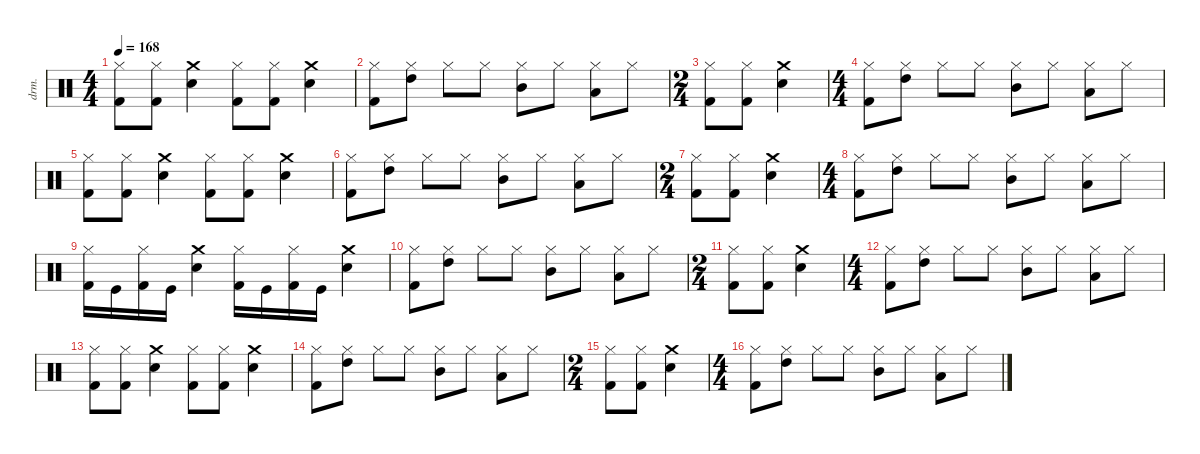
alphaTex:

\defaultSystemsLayout 4
\hideDynamics
\bracketExtendMode nobrackets
\otherSystemsTrackNameOrientation horizontal
\track ("Drums" "drm.") {instrument percussion}
\staff {score}
\articulation defaults
\ts (4 4)
\tempo 168
\clef neutral
\ks c
("Hi-Hat (closed)" "Kick (hit) 2").8{dy fff} ("Hi-Hat (closed)" "Kick (hit) 2").8 ("Snare (hit) 2" "Crash medium (hit)").4 ("Kick (hit) 2" "Hi-Hat (closed)").8 ("Kick (hit) 2" "Hi-Hat (closed)").8 ("Crash medium (hit)" "Snare (hit) 2").4 |
("Hi-Hat (closed)" "Kick (hit) 2").8 ("High Tom (hit)" "Hi-Hat (closed)").8 "Hi-Hat (closed)".8 "Hi-Hat (closed)".8 ("Mid Tom (hit)" "Hi-Hat (closed)").8 "Hi-Hat (closed)".8 ("Low Tom (hit)" "Hi-Hat (closed)").8 "Hi-Hat (closed)".8 |
\ts (2 4)
\beaming (8 2 2)
("Kick (hit) 2" "Hi-Hat (closed)").8 ("Kick (hit) 2" "Hi-Hat (closed)").8 ("Snare (hit) 2" "Crash medium (hit)").4 |
\ts (4 4)
\beaming (8 2 2 2 2)
("Hi-Hat (closed)" "Kick (hit) 2").8 ("High Tom (hit)" "Hi-Hat (closed)").8 "Hi-Hat (closed)".8 "Hi-Hat (closed)".8 ("Mid Tom (hit)" "Hi-Hat (closed)").8 "Hi-Hat (closed)".8 ("Hi-Hat (closed)" "Low Tom (hit)").8 "Hi-Hat (closed)".8 |
("Hi-Hat (closed)" "Kick (hit) 2").8 ("Hi-Hat (closed)" "Kick (hit) 2").8 ("Snare (hit) 2" "Crash medium (hit)").4 ("Kick (hit) 2" "Hi-Hat (closed)").8 ("Kick (hit) 2" "Hi-Hat (closed)").8 ("Crash medium (hit)" "Snare (hit) 2").4 |
("Hi-Hat (closed)" "Kick (hit) 2").8 ("High Tom (hit)" "Hi-Hat (closed)").8 "Hi-Hat (closed)".8 "Hi-Hat (closed)".8 ("Mid Tom (hit)" "Hi-Hat (closed)").8 "Hi-Hat (closed)".8 ("Hi-Hat (closed)" "Low Tom (hit)").8 "Hi-Hat (closed)".8 |
\ts (2 4)
\beaming (8 2 2)
("Kick (hit) 2" "Hi-Hat (closed)").8 ("Kick (hit) 2" "Hi-Hat (closed)").8 ("Snare (hit) 2" "Crash medium (hit)").4 |
\ts (4 4)
\beaming (8 2 2 2 2)
("Hi-Hat (closed)" "Kick (hit) 2").8 ("High Tom (hit)" "Hi-Hat (closed)").8 "Hi-Hat (closed)".8 "Hi-Hat (closed)".8 ("Mid Tom (hit)" "Hi-Hat (closed)").8 "Hi-Hat (closed)".8 ("Hi-Hat (closed)" "Low Tom (hit)").8 "Hi-Hat (closed)".8 |
("Kick (hit) 2" "Hi-Hat (closed)").16 "Kick (hit)".16 ("Kick (hit) 2" "Hi-Hat (closed)").16 "Kick (hit)".16 ("Snare (hit) 2" "Crash medium (hit)").4 ("Kick (hit) 2" "Hi-Hat (closed)").16 "Kick (hit)".16 ("Kick (hit) 2" "Hi-Hat (closed)").16 "Kick (hit)".16 ("Crash medium (hit)" "Snare (hit) 2").4 |
("Hi-Hat (closed)" "Kick (hit) 2").8 ("High Tom (hit)" "Hi-Hat (closed)").8 "Hi-Hat (closed)".8 "Hi-Hat (closed)".8 ("Mid Tom (hit)" "Hi-Hat (closed)").8 "Hi-Hat (closed)".8 ("Low Tom (hit)" "Hi-Hat (closed)").8 "Hi-Hat (closed)".8 |
\ts (2 4)
\beaming (8 2 2)
("Kick (hit) 2" "Hi-Hat (closed)").8 ("Kick (hit) 2" "Hi-Hat (closed)").8 ("Snare (hit) 2" "Crash medium (hit)").4 |
\ts (4 4)
\beaming (8 2 2 2 2)
("Hi-Hat (closed)" "Kick (hit) 2").8 ("High Tom (hit)" "Hi-Hat (closed)").8 "Hi-Hat (closed)".8 "Hi-Hat (closed)".8 ("Mid Tom (hit)" "Hi-Hat (closed)").8 "Hi-Hat (closed)".8 ("Hi-Hat (closed)" "Low Tom (hit)").8 "Hi-Hat (closed)".8 |
("Hi-Hat (closed)" "Kick (hit) 2").8 ("Hi-Hat (closed)" "Kick (hit) 2").8 ("Snare (hit) 2" "Crash medium (hit)").4 ("Kick (hit) 2" "Hi-Hat (closed)").8 ("Kick (hit) 2" "Hi-Hat (closed)").8 ("Crash medium (hit)" "Snare (hit) 2").4 |
("Hi-Hat (closed)" "Kick (hit) 2").8 ("High Tom (hit)" "Hi-Hat (closed)").8 "Hi-Hat (closed)".8 "Hi-Hat (closed)".8 ("Mid Tom (hit)" "Hi-Hat (closed)").8 "Hi-Hat (closed)".8 ("Low Tom (hit)" "Hi-Hat (closed)").8 "Hi-Hat (closed)".8 |
\ts (2 4)
\beaming (8 2 2)
("Kick (hit) 2" "Hi-Hat (closed)").8 ("Kick (hit) 2" "Hi-Hat (closed)").8 ("Snare (hit) 2" "Crash medium (hit)").4 |
\ts (4 4)
\beaming (8 2 2 2 2)
("Hi-Hat (closed)" "Kick (hit) 2").8 ("High Tom (hit)" "Hi-Hat (closed)").8 "Hi-Hat (closed)".8 "Hi-Hat (closed)".8 ("Mid Tom (hit)" "Hi-Hat (closed)").8 "Hi-Hat (closed)".8 ("Hi-Hat (closed)" "Low Tom (hit)").8 "Hi-Hat (closed)".8
